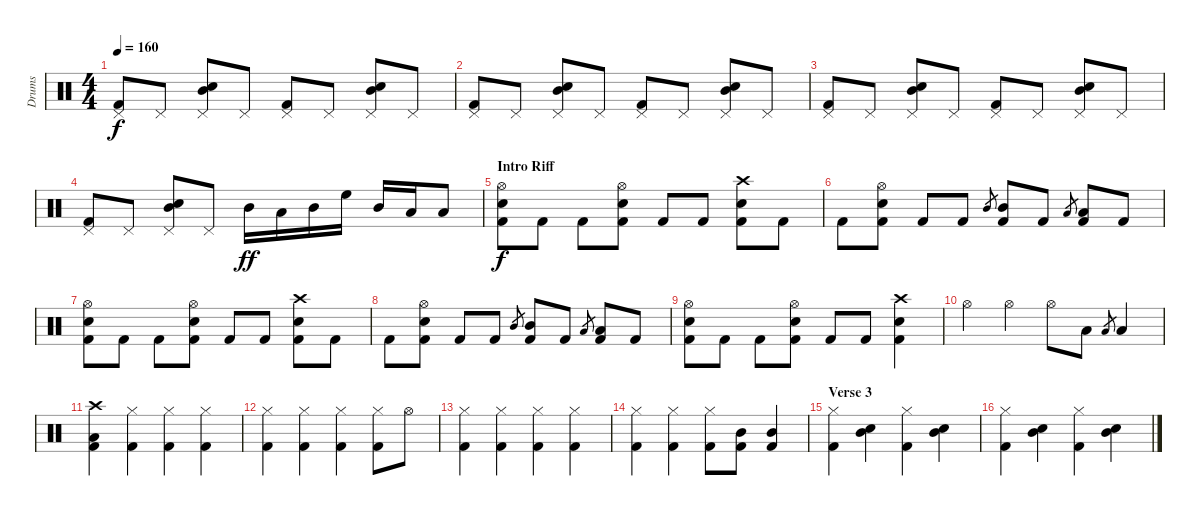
\track ("Drums" "Drums") {instrument percussion}
\staff {score}
\articulation defaults
\ts (4 4)
\tempo 160
\clef neutral
\ks c
("Kick (hit) 2" "Pedal Hi-Hat (hit)").8{dy f} "Pedal Hi-Hat (hit)".8 ("Snare (hit) 2" "Pedal Hi-Hat (hit)" "Mid Tom (hit)").8 "Pedal Hi-Hat (hit)".8 ("Kick (hit) 2" "Pedal Hi-Hat (hit)").8 "Pedal Hi-Hat (hit)".8 ("Snare (hit) 2" "Pedal Hi-Hat (hit)" "Mid Tom (hit)").8 "Pedal Hi-Hat (hit)".8 |
("Kick (hit) 2" "Pedal Hi-Hat (hit)").8 "Pedal Hi-Hat (hit)".8 ("Snare (hit) 2" "Pedal Hi-Hat (hit)" "Mid Tom (hit)").8 "Pedal Hi-Hat (hit)".8 ("Kick (hit) 2" "Pedal Hi-Hat (hit)").8 "Pedal Hi-Hat (hit)".8 ("Snare (hit) 2" "Pedal Hi-Hat (hit)" "Mid Tom (hit)").8 "Pedal Hi-Hat (hit)".8 |
("Kick (hit) 2" "Pedal Hi-Hat (hit)").8 "Pedal Hi-Hat (hit)".8 ("Snare (hit) 2" "Pedal Hi-Hat (hit)" "Mid Tom (hit)").8 "Pedal Hi-Hat (hit)".8 ("Kick (hit) 2" "Pedal Hi-Hat (hit)").8 "Pedal Hi-Hat (hit)".8 ("Snare (hit) 2" "Pedal Hi-Hat (hit)" "Mid Tom (hit)").8 "Pedal Hi-Hat (hit)".8 |
("Kick (hit) 2" "Pedal Hi-Hat (hit)").8 "Pedal Hi-Hat (hit)".8 ("Snare (hit) 2" "Pedal Hi-Hat (hit)" "Mid Tom (hit)").8 "Pedal Hi-Hat (hit)".8 "Mid Tom (hit)".16{dy ff} "Low Tom (hit)".16 "Mid Tom (hit)".16 "High Floor Tom (hit)".16 "Mid Tom (hit)".16 "Low Tom (hit)".16 "Low Tom (hit)".8 |
\section ("" "Intro Riff")
("Kick (hit) 2" "Hi-Hat (open)" "Snare (hit) 2").8{dy f} "Kick (hit) 2".8 "Kick (hit) 2".8 ("Kick (hit) 2" "Hi-Hat (open)" "Snare (hit) 2").8 "Kick (hit) 2".8 "Kick (hit) 2".8 ("Kick (hit) 2" "Crash high (hit)" "Snare (hit) 2").8 "Kick (hit) 2".8 |
"Kick (hit) 2".8 ("Kick (hit) 2" "Hi-Hat (open)" "Snare (hit) 2").8 "Kick (hit) 2".8 "Kick (hit) 2".8 "Mid Tom (hit)".8{gr} ("Kick (hit) 2" "Mid Tom (hit)").8 "Kick (hit) 2".8 "Low Tom (hit)".8{gr} ("Kick (hit) 2" "Low Tom (hit)").8 "Kick (hit) 2".8 |
("Kick (hit) 2" "Hi-Hat (open)" "Snare (hit) 2").8 "Kick (hit) 2".8 "Kick (hit) 2".8 ("Kick (hit) 2" "Hi-Hat (open)" "Snare (hit) 2").8 "Kick (hit) 2".8 "Kick (hit) 2".8 ("Kick (hit) 2" "Crash high (hit)" "Snare (hit) 2").8 "Kick (hit) 2".8 |
"Kick (hit) 2".8 ("Kick (hit) 2" "Hi-Hat (open)" "Snare (hit) 2").8 "Kick (hit) 2".8 "Kick (hit) 2".8 "Mid Tom (hit)".8{gr} ("Kick (hit) 2" "Mid Tom (hit)").8 "Kick (hit) 2".8 "Low Tom (hit)".8{gr} ("Kick (hit) 2" "Low Tom (hit)").8 "Kick (hit) 2".8 |
("Kick (hit) 2" "Hi-Hat (open)" "Snare (hit) 2").8 "Kick (hit) 2".8 "Kick (hit) 2".8 ("Kick (hit) 2" "Hi-Hat (open)" "Snare (hit) 2").8 "Kick (hit) 2".8 "Kick (hit) 2".8 ("Kick (hit) 2" "Crash high (hit)" "Snare (hit) 2").4 |
"Hi-Hat (open)".4 "Hi-Hat (open)".4 "Hi-Hat (open)".8 "Low Tom (hit)".8 "Low Tom (hit)".8{gr} "Low Tom (hit)".4 |
("Crash high (hit)" "Low Tom (hit)" "Kick (hit) 2").4 ("Hi-Hat (closed)" "Kick (hit) 2").4 ("Hi-Hat (closed)" "Kick (hit) 2").4 ("Hi-Hat (closed)" "Kick (hit) 2").4 |
("Hi-Hat (closed)" "Kick (hit) 2").4 ("Hi-Hat (closed)" "Kick (hit) 2").4 ("Hi-Hat (closed)" "Kick (hit) 2").4 ("Hi-Hat (closed)" "Kick (hit) 2").8 "Hi-Hat (open)".8 |
("Hi-Hat (closed)" "Kick (hit) 2").4 ("Hi-Hat (closed)" "Kick (hit) 2").4 ("Hi-Hat (closed)" "Kick (hit) 2").4 ("Hi-Hat (closed)" "Kick (hit) 2").4 |
("Hi-Hat (closed)" "Kick (hit) 2").4 ("Hi-Hat (closed)" "Kick (hit) 2").4 ("Hi-Hat (closed)" "Kick (hit) 2").8 ("Mid Tom (hit)" "Kick (hit) 2").8 ("Mid Tom (hit)" "Kick (hit) 2").4 |
\section ("" "Verse 3")
("Hi-Hat (closed)" "Kick (hit) 2").4 ("Snare (hit) 2" "Mid Tom (hit)").4 ("Hi-Hat (closed)" "Kick (hit) 2").4 ("Snare (hit) 2" "Mid Tom (hit)").4 |
("Hi-Hat (closed)" "Kick (hit) 2").4 ("Snare (hit) 2" "Mid Tom (hit)").4 ("Hi-Hat (closed)" "Kick (hit) 2").4 ("Snare (hit) 2" "Mid Tom (hit)").4
